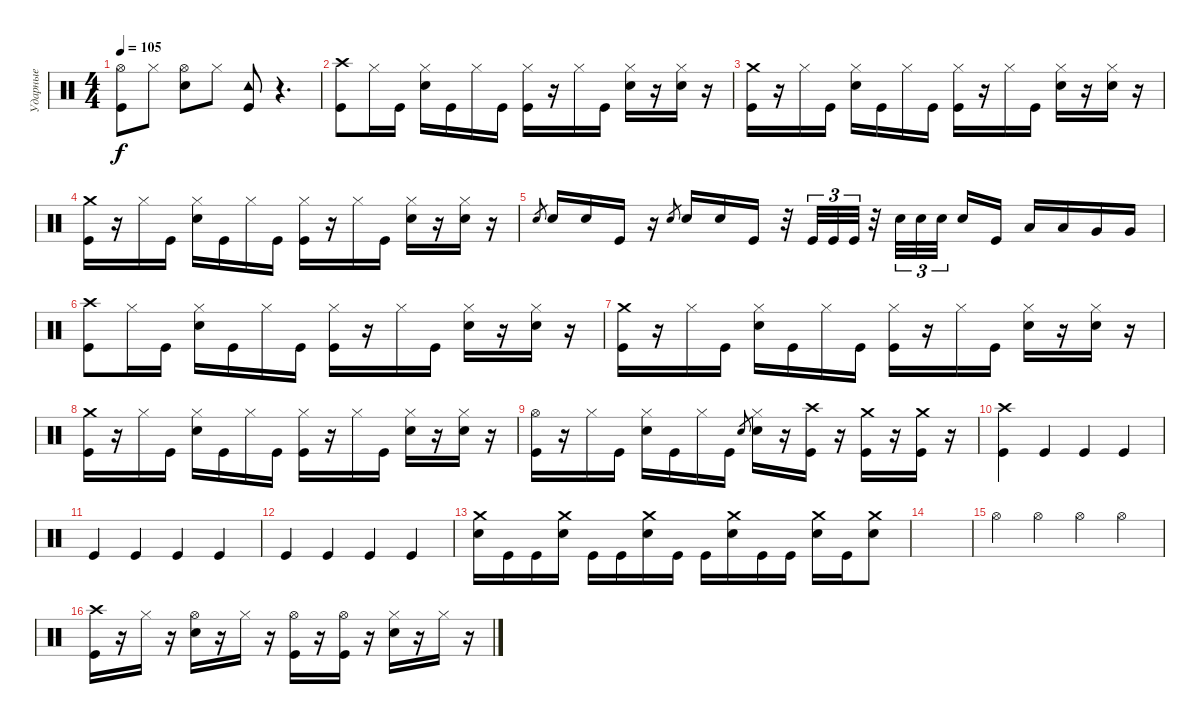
\track ("Ударные" "Ударные") {instrument percussion}
\staff {score}
\articulation defaults
\ts (4 4)
\tempo 105
\clef neutral
\ks c
("Hi-Hat (open)" "Kick (hit)").8{dy f} "Hi-Hat (closed)".8 ("Hi-Hat (open)" "Snare (hit) 2").8 "Hi-Hat (closed)".8 ("Tambourine (hit)" "Kick (hit)").8 r.4{d} |
("Crash high (hit)" "Kick (hit)").8 "Hi-Hat (closed)".16 "Kick (hit)".16 ("Hi-Hat (closed)" "Snare (hit) 2").16 "Kick (hit)".16 "Hi-Hat (closed)".16 "Kick (hit)".16 ("Hi-Hat (closed)" "Kick (hit)").16 r.16 "Hi-Hat (closed)".16 "Kick (hit)".16 ("Hi-Hat (closed)" "Snare (hit) 2").16 r.16 ("Hi-Hat (closed)" "Snare (hit) 2").16 r.16 |
("Crash medium (hit)" "Kick (hit)").16 r.16 "Hi-Hat (closed)".16 "Kick (hit)".16 ("Hi-Hat (closed)" "Snare (hit) 2").16 "Kick (hit)".16 "Hi-Hat (closed)".16 "Kick (hit)".16 ("Hi-Hat (closed)" "Kick (hit)").16 r.16 "Hi-Hat (closed)".16 "Kick (hit)".16 ("Hi-Hat (closed)" "Snare (hit) 2").16 r.16 ("Hi-Hat (closed)" "Snare (hit) 2").16 r.16 |
("Crash medium (hit)" "Kick (hit)").16 r.16 "Hi-Hat (closed)".16 "Kick (hit)".16 ("Hi-Hat (closed)" "Snare (hit) 2").16 "Kick (hit)".16 "Hi-Hat (closed)".16 "Kick (hit)".16 ("Hi-Hat (closed)" "Kick (hit)").16 r.16 "Hi-Hat (closed)".16 "Kick (hit)".16 ("Hi-Hat (closed)" "Snare (hit) 2").16 r.16 ("Hi-Hat (closed)" "Snare (hit) 2").16 r.16 |
"Snare (hit) 2".8{gr} "Snare (hit) 2".16 "Snare (hit) 2".16 "Kick (hit)".16 r.16 "Snare (hit) 2".8{gr} "Snare (hit) 2".16 "Snare (hit) 2".16 "Kick (hit)".16 r.32 "Kick (hit)".32{tu (3 2)} "Kick (hit)".32{tu (3 2)} "Kick (hit)".32{tu (3 2)} r.32 "Snare (hit) 2".32{tu (3 2)} "Snare (hit) 2".32{tu (3 2)} "Snare (hit) 2".32{tu (3 2) beam splitsecondary} "Snare (hit) 2".16 "Kick (hit)".16 "Low Tom (hit)".16 "Low Tom (hit)".16 "Very Low Tom (hit)".16 "Very Low Tom (hit)".16 |
("Crash high (hit)" "Kick (hit)").8 "Hi-Hat (closed)".16 "Kick (hit)".16 ("Hi-Hat (closed)" "Snare (hit) 2").16 "Kick (hit)".16 "Hi-Hat (closed)".16 "Kick (hit)".16 ("Hi-Hat (closed)" "Kick (hit)").16 r.16 "Hi-Hat (closed)".16 "Kick (hit)".16 ("Hi-Hat (closed)" "Snare (hit) 2").16 r.16 ("Hi-Hat (closed)" "Snare (hit) 2").16 r.16 |
("Crash medium (hit)" "Kick (hit)").16 r.16 "Hi-Hat (closed)".16 "Kick (hit)".16 ("Hi-Hat (closed)" "Snare (hit) 2").16 "Kick (hit)".16 "Hi-Hat (closed)".16 "Kick (hit)".16 ("Hi-Hat (closed)" "Kick (hit)").16 r.16 "Hi-Hat (closed)".16 "Kick (hit)".16 ("Hi-Hat (closed)" "Snare (hit) 2").16 r.16 ("Hi-Hat (closed)" "Snare (hit) 2").16 r.16 |
("Crash medium (hit)" "Kick (hit)").16 r.16 "Hi-Hat (closed)".16 "Kick (hit)".16 ("Hi-Hat (closed)" "Snare (hit) 2").16 "Kick (hit)".16 "Hi-Hat (closed)".16 "Kick (hit)".16 ("Hi-Hat (closed)" "Kick (hit)").16 r.16 "Hi-Hat (closed)".16 "Kick (hit)".16 ("Hi-Hat (closed)" "Snare (hit) 2").16 r.16 ("Hi-Hat (closed)" "Snare (hit) 2").16 r.16 |
("Hi-Hat (open)" "Kick (hit)").16 r.16 "Hi-Hat (closed)".16 "Kick (hit)".16 ("Hi-Hat (closed)" "Snare (hit) 2").16 "Kick (hit)".16 "Hi-Hat (closed)".16 "Kick (hit)".16 "Snare (hit) 2".8{gr} ("Hi-Hat (closed)" "Snare (hit) 2").16 r.16 ("Crash high (hit)" "Kick (hit)").16 r.16 ("Crash medium (hit)" "Kick (hit)").16 r.16 ("Crash medium (hit)" "Kick (hit)").16 r.16 |
("Crash high (hit)" "Kick (hit)").4 "Kick (hit)".4 "Kick (hit)".4 "Kick (hit)".4 |
"Kick (hit)".4 "Kick (hit)".4 "Kick (hit)".4 "Kick (hit)".4 |
"Kick (hit)".4 "Kick (hit)".4 "Kick (hit)".4 "Kick (hit)".4 |
("Crash medium (hit)" "Snare (hit) 2").16 "Kick (hit)".16 "Kick (hit)".16 ("Crash medium (hit)" "Snare (hit) 2").16 "Kick (hit)".16 "Kick (hit)".16 ("Crash medium (hit)" "Snare (hit) 2").16 "Kick (hit)".16 "Kick (hit)".16 ("Crash medium (hit)" "Snare (hit) 2").16 "Kick (hit)".16 "Kick (hit)".16 ("Crash medium (hit)" "Snare (hit) 2").16 "Kick (hit)".16 ("Crash medium (hit)" "Snare (hit) 2").8 |
|
"Hi-Hat (open)".4 "Hi-Hat (open)".4 "Hi-Hat (open)".4 "Hi-Hat (open)".4 |
("Crash high (hit)" "Kick (hit)").16 r.16 "Hi-Hat (closed)".16 r.16 ("Hi-Hat (open)" "Snare (hit) 2").16 r.16 "Hi-Hat (closed)".16 r.16 ("Hi-Hat (open)" "Kick (hit)").16 r.16 ("Hi-Hat (open)" "Kick (hit)").16 r.16 ("Hi-Hat (closed)" "Snare (hit) 2").16 r.16 "Hi-Hat (closed)".16 r.16
